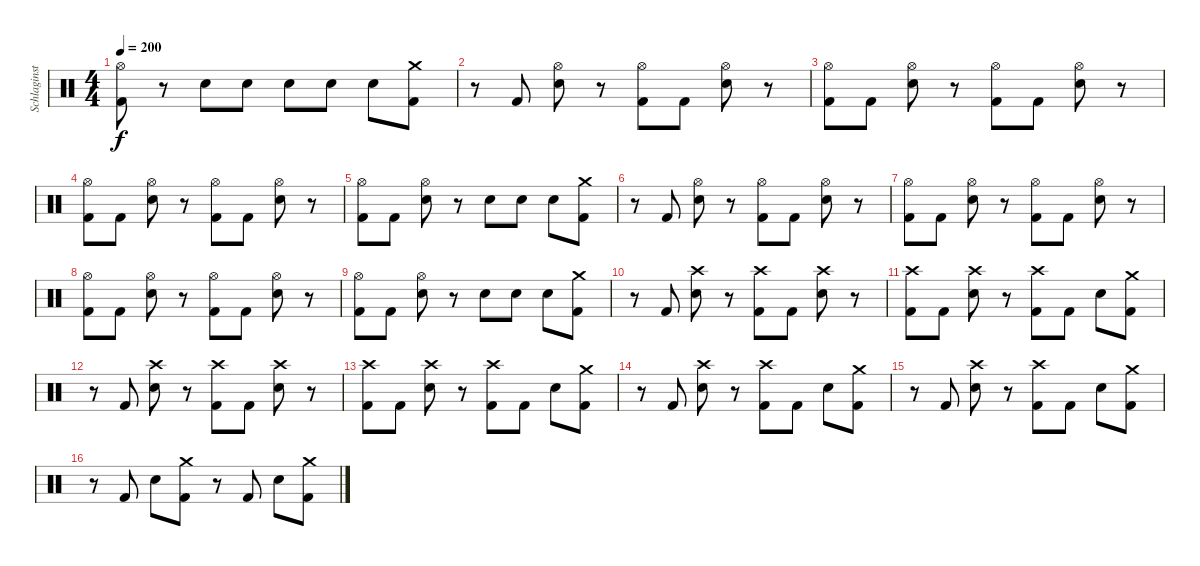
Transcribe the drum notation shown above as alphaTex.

\track ("Schlaginstrumente - Auswahl" "Schlaginst") {instrument percussion}
\staff {score}
\articulation defaults
\ts (4 4)
\tempo 200
\clef neutral
\ks c
("Hi-Hat (open)" "Kick (hit) 2").8{dy f} r.8 "Electric Snare (hit)".8 "Electric Snare (hit)".8 "Electric Snare (hit)".8 "Electric Snare (hit)".8 "Electric Snare (hit)".8 ("Crash medium (hit)" "Kick (hit) 2").8 |
r.8 "Kick (hit) 2".8 ("Hi-Hat (open)" "Electric Snare (hit)").8 r.8 ("Hi-Hat (open)" "Kick (hit) 2").8 "Kick (hit) 2".8 ("Hi-Hat (open)" "Electric Snare (hit)").8 r.8 |
("Hi-Hat (open)" "Kick (hit) 2").8 "Kick (hit) 2".8 ("Hi-Hat (open)" "Electric Snare (hit)").8 r.8 ("Hi-Hat (open)" "Kick (hit) 2").8 "Kick (hit) 2".8 ("Hi-Hat (open)" "Electric Snare (hit)").8 r.8 |
("Hi-Hat (open)" "Kick (hit) 2").8 "Kick (hit) 2".8 ("Hi-Hat (open)" "Electric Snare (hit)").8 r.8 ("Hi-Hat (open)" "Kick (hit) 2").8 "Kick (hit) 2".8 ("Hi-Hat (open)" "Electric Snare (hit)").8 r.8 |
("Hi-Hat (open)" "Kick (hit) 2").8 "Kick (hit) 2".8 ("Hi-Hat (open)" "Electric Snare (hit)").8 r.8 "Electric Snare (hit)".8 "Electric Snare (hit)".8 "Electric Snare (hit)".8 ("Crash medium (hit)" "Kick (hit) 2").8 |
r.8 "Kick (hit) 2".8 ("Hi-Hat (open)" "Electric Snare (hit)").8 r.8 ("Hi-Hat (open)" "Kick (hit) 2").8 "Kick (hit) 2".8 ("Hi-Hat (open)" "Electric Snare (hit)").8 r.8 |
("Hi-Hat (open)" "Kick (hit) 2").8 "Kick (hit) 2".8 ("Hi-Hat (open)" "Electric Snare (hit)").8 r.8 ("Hi-Hat (open)" "Kick (hit) 2").8 "Kick (hit) 2".8 ("Hi-Hat (open)" "Electric Snare (hit)").8 r.8 |
("Hi-Hat (open)" "Kick (hit) 2").8 "Kick (hit) 2".8 ("Hi-Hat (open)" "Electric Snare (hit)").8 r.8 ("Hi-Hat (open)" "Kick (hit) 2").8 "Kick (hit) 2".8 ("Hi-Hat (open)" "Electric Snare (hit)").8 r.8 |
("Hi-Hat (open)" "Kick (hit) 2").8 "Kick (hit) 2".8 ("Hi-Hat (open)" "Electric Snare (hit)").8 r.8 "Electric Snare (hit)".8 "Electric Snare (hit)".8 "Electric Snare (hit)".8 ("Crash medium (hit)" "Kick (hit) 2").8 |
r.8 "Kick (hit) 2".8 ("Crash high (hit)" "Electric Snare (hit)").8 r.8 ("Crash high (hit)" "Kick (hit) 2").8 "Kick (hit) 2".8 ("Crash high (hit)" "Electric Snare (hit)").8 r.8 |
("Crash high (hit)" "Kick (hit) 2").8 "Kick (hit) 2".8 ("Crash high (hit)" "Electric Snare (hit)").8 r.8 ("Crash high (hit)" "Kick (hit) 2").8 "Kick (hit) 2".8 "Electric Snare (hit)".8 ("Crash medium (hit)" "Kick (hit) 2").8 |
r.8 "Kick (hit) 2".8 ("Crash high (hit)" "Electric Snare (hit)").8 r.8 ("Crash high (hit)" "Kick (hit) 2").8 "Kick (hit) 2".8 ("Crash high (hit)" "Electric Snare (hit)").8 r.8 |
("Crash high (hit)" "Kick (hit) 2").8 "Kick (hit) 2".8 ("Crash high (hit)" "Electric Snare (hit)").8 r.8 ("Crash high (hit)" "Kick (hit) 2").8 "Kick (hit) 2".8 "Electric Snare (hit)".8 ("Crash medium (hit)" "Kick (hit) 2").8 |
r.8 "Kick (hit) 2".8 ("Crash high (hit)" "Electric Snare (hit)").8 r.8 ("Crash high (hit)" "Kick (hit) 2").8 "Kick (hit) 2".8 "Electric Snare (hit)".8 ("Crash medium (hit)" "Kick (hit) 2").8 |
r.8 "Kick (hit) 2".8 ("Crash high (hit)" "Electric Snare (hit)").8 r.8 ("Crash high (hit)" "Kick (hit) 2").8 "Kick (hit) 2".8 "Electric Snare (hit)".8 ("Crash medium (hit)" "Kick (hit) 2").8 |
r.8 "Kick (hit) 2".8 "Electric Snare (hit)".8 ("Crash medium (hit)" "Kick (hit) 2").8 r.8 "Kick (hit) 2".8 "Electric Snare (hit)".8 ("Crash medium (hit)" "Kick (hit) 2").8
